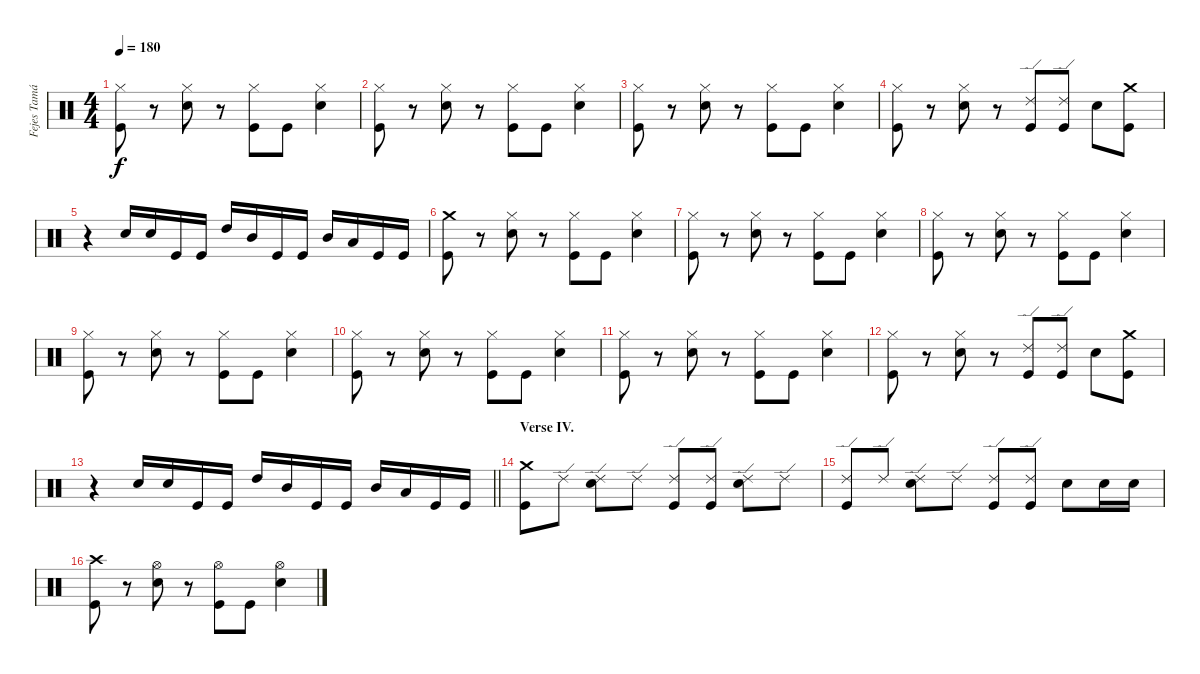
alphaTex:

\track ("Fejes Tamás - Dob" "Fejes Tamá") {instrument percussion}
\staff {score}
\articulation defaults
\ts (4 4)
\tempo 180
\clef neutral
\ks c
("Hi-Hat (closed)" "Kick (hit)").8{dy f} r.8 ("Hi-Hat (closed)" "Electric Snare (hit)").8 r.8 ("Hi-Hat (closed)" "Kick (hit)").8 "Kick (hit)".8 ("Hi-Hat (closed)" "Electric Snare (hit)").4 |
("Hi-Hat (closed)" "Kick (hit)").8 r.8 ("Hi-Hat (closed)" "Electric Snare (hit)").8 r.8 ("Hi-Hat (closed)" "Kick (hit)").8 "Kick (hit)".8 ("Hi-Hat (closed)" "Electric Snare (hit)").4 |
("Hi-Hat (closed)" "Kick (hit)").8 r.8 ("Hi-Hat (closed)" "Electric Snare (hit)").8 r.8 ("Hi-Hat (closed)" "Kick (hit)").8 "Kick (hit)".8 ("Hi-Hat (closed)" "Electric Snare (hit)").4 |
("Hi-Hat (closed)" "Kick (hit)").8 r.8 ("Hi-Hat (closed)" "Electric Snare (hit)").8 r.8 ("Ride (edge) 2" "Kick (hit)").8 ("Ride (edge) 2" "Kick (hit)").8 "Electric Snare (hit)".8 ("Crash medium (hit)" "Kick (hit)").8 |
r.4 "Electric Snare (hit)".16 "Electric Snare (hit)".16 "Kick (hit)".16 "Kick (hit)".16 "High Tom (hit)".16 "Mid Tom (hit)".16 "Kick (hit)".16 "Kick (hit)".16 "Mid Tom (hit)".16 "Low Tom (hit)".16 "Kick (hit)".16 "Kick (hit)".16 |
("Crash medium (hit)" "Kick (hit)").8 r.8 ("Hi-Hat (closed)" "Electric Snare (hit)").8 r.8 ("Hi-Hat (closed)" "Kick (hit)").8 "Kick (hit)".8 ("Hi-Hat (closed)" "Electric Snare (hit)").4 |
("Hi-Hat (closed)" "Kick (hit)").8 r.8 ("Hi-Hat (closed)" "Electric Snare (hit)").8 r.8 ("Hi-Hat (closed)" "Kick (hit)").8 "Kick (hit)".8 ("Hi-Hat (closed)" "Electric Snare (hit)").4 |
("Hi-Hat (closed)" "Kick (hit)").8 r.8 ("Hi-Hat (closed)" "Electric Snare (hit)").8 r.8 ("Hi-Hat (closed)" "Kick (hit)").8 "Kick (hit)".8 ("Hi-Hat (closed)" "Electric Snare (hit)").4 |
("Hi-Hat (closed)" "Kick (hit)").8 r.8 ("Hi-Hat (closed)" "Electric Snare (hit)").8 r.8 ("Hi-Hat (closed)" "Kick (hit)").8 "Kick (hit)".8 ("Hi-Hat (closed)" "Electric Snare (hit)").4 |
("Hi-Hat (closed)" "Kick (hit)").8 r.8 ("Hi-Hat (closed)" "Electric Snare (hit)").8 r.8 ("Hi-Hat (closed)" "Kick (hit)").8 "Kick (hit)".8 ("Hi-Hat (closed)" "Electric Snare (hit)").4 |
("Hi-Hat (closed)" "Kick (hit)").8 r.8 ("Hi-Hat (closed)" "Electric Snare (hit)").8 r.8 ("Hi-Hat (closed)" "Kick (hit)").8 "Kick (hit)".8 ("Hi-Hat (closed)" "Electric Snare (hit)").4 |
("Hi-Hat (closed)" "Kick (hit)").8 r.8 ("Hi-Hat (closed)" "Electric Snare (hit)").8 r.8 ("Ride (edge) 2" "Kick (hit)").8 ("Ride (edge) 2" "Kick (hit)").8 "Electric Snare (hit)".8 ("Crash medium (hit)" "Kick (hit)").8 |
\barLineRight lightlight
r.4 "Electric Snare (hit)".16 "Electric Snare (hit)".16 "Kick (hit)".16 "Kick (hit)".16 "High Tom (hit)".16 "Mid Tom (hit)".16 "Kick (hit)".16 "Kick (hit)".16 "Mid Tom (hit)".16 "Low Tom (hit)".16 "Kick (hit)".16 "Kick (hit)".16 |
\section ("" "Verse IV.")
("Crash medium (hit)" "Kick (hit)").8 "Ride (edge) 2".8 ("Ride (edge) 2" "Electric Snare (hit)").8 "Ride (edge) 2".8 ("Ride (edge) 2" "Kick (hit)").8 ("Ride (edge) 2" "Kick (hit)").8 ("Ride (edge) 2" "Electric Snare (hit)").8 "Ride (edge) 2".8 |
("Ride (edge) 2" "Kick (hit)").8 "Ride (edge) 2".8 ("Ride (edge) 2" "Electric Snare (hit)").8 "Ride (edge) 2".8 ("Ride (edge) 2" "Kick (hit)").8 ("Ride (edge) 2" "Kick (hit)").8 "Electric Snare (hit)".8 "Electric Snare (hit)".16 "Electric Snare (hit)".16 |
("Crash high (hit)" "Kick (hit)").8 r.8 ("Hi-Hat (open)" "Electric Snare (hit)").8 r.8 ("Hi-Hat (open)" "Kick (hit)").8 "Kick (hit)".8 ("Hi-Hat (open)" "Electric Snare (hit)").4
